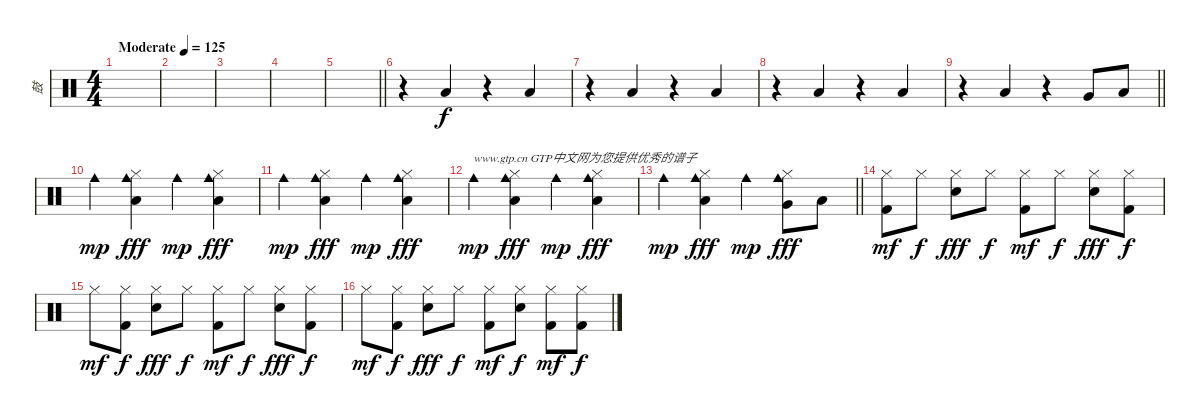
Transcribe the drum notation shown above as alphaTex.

\track ("鼓" "鼓") {instrument percussion}
\staff {score}
\articulation defaults
\ts (4 4)
\tempo (125 "Moderate")
\clef neutral
\ks c
|
|
|
|
\barLineRight lightlight
|
r.4 "Low Floor Tom (hit)".4 r.4 "Low Floor Tom (hit)".4 |
r.4 "Low Floor Tom (hit)".4 r.4 "Low Floor Tom (hit)".4 |
r.4 "Low Floor Tom (hit)".4 r.4 "Low Floor Tom (hit)".4 |
\barLineRight lightlight
r.4 "Low Floor Tom (hit)".4 r.4 "Very Low Tom (hit)".8 "Low Floor Tom (hit)".8 |
"Cowbell medium (hit)".4{dy mp} ("Hi-Hat (closed)" "Cowbell medium (hit)" "Low Floor Tom (hit)").4{dy fff} "Cowbell medium (hit)".4{dy mp} ("Hi-Hat (closed)" "Cowbell medium (hit)" "Low Floor Tom (hit)").4{dy fff} |
"Cowbell medium (hit)".4{dy mp} ("Hi-Hat (closed)" "Cowbell medium (hit)" "Low Floor Tom (hit)").4{dy fff} "Cowbell medium (hit)".4{dy mp} ("Hi-Hat (closed)" "Cowbell medium (hit)" "Low Floor Tom (hit)").4{dy fff} |
"Cowbell medium (hit)".4{txt "www.gtp.cn GTP中文网为您提供优秀的谱子" dy mp} ("Hi-Hat (closed)" "Cowbell medium (hit)" "Low Floor Tom (hit)").4{dy fff} "Cowbell medium (hit)".4{dy mp} ("Hi-Hat (closed)" "Cowbell medium (hit)" "Low Floor Tom (hit)").4{dy fff} |
\barLineRight lightlight "Cowbell medium (hit)".4{dy mp}
("Hi-Hat (closed)" "Cowbell medium (hit)" "Low Floor Tom (hit)").4{dy fff} "Cowbell medium (hit)".4{dy mp} ("Hi-Hat (closed)" "Cowbell medium (hit)" "Very Low Tom (hit)").8{dy fff} "Low Floor Tom (hit)".8 |
("Hi-Hat (closed)" "Kick (hit) 2").8{dy mf} "Hi-Hat (closed)".8{dy f} ("Hi-Hat (closed)" "Snare (hit) 2").8{dy fff} "Hi-Hat (closed)".8{dy f} ("Hi-Hat (closed)" "Kick (hit) 2").8{dy mf} "Hi-Hat (closed)".8{dy f} ("Hi-Hat (closed)" "Snare (hit) 2").8{dy fff} ("Hi-Hat (closed)" "Kick (hit) 2").8{dy f} |
"Hi-Hat (closed)".8{dy mf} ("Hi-Hat (closed)" "Kick (hit) 2").8{dy f} ("Hi-Hat (closed)" "Snare (hit) 2").8{dy fff} "Hi-Hat (closed)".8{dy f} ("Hi-Hat (closed)" "Kick (hit) 2").8{dy mf} "Hi-Hat (closed)".8{dy f} ("Hi-Hat (closed)" "Snare (hit) 2").8{dy fff} ("Hi-Hat (closed)" "Kick (hit) 2").8{dy f} |
"Hi-Hat (closed)".8{dy mf} ("Hi-Hat (closed)" "Kick (hit) 2").8{dy f} ("Hi-Hat (closed)" "Snare (hit) 2").8{dy fff} "Hi-Hat (closed)".8{dy f} ("Hi-Hat (closed)" "Kick (hit) 2").8{dy mf} ("Hi-Hat (closed)" "Snare (hit) 2").8{dy f} ("Hi-Hat (closed)" "Kick (hit) 2").8{dy mf} ("Hi-Hat (closed)" "Kick (hit) 2").8{dy f}
